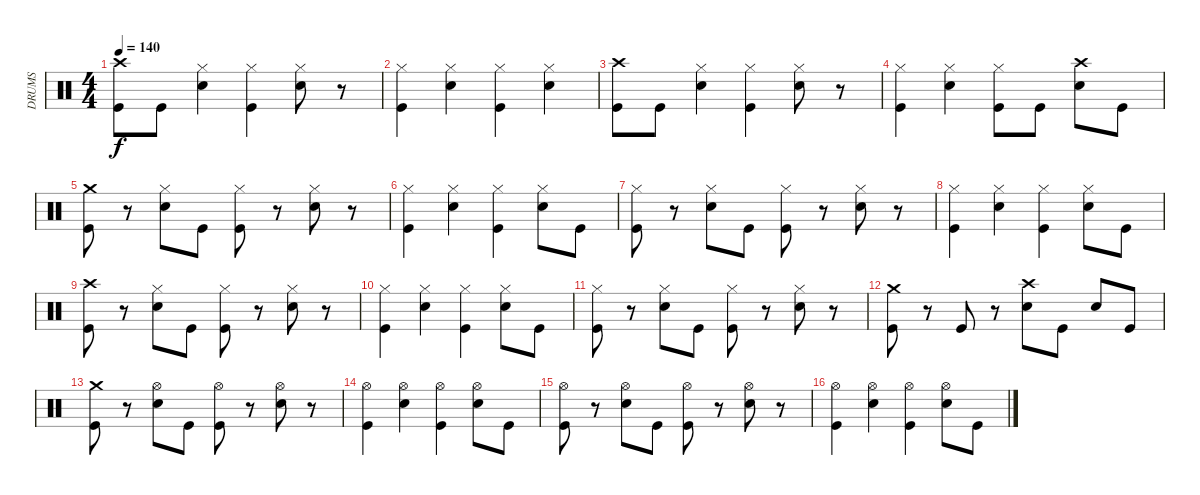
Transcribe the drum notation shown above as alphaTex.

\track ("DRUMS" "DRUMS") {instrument percussion}
\staff {score}
\articulation defaults
\ts (4 4)
\tempo 140
\clef neutral
\ks c
("Crash high (hit)" "Kick (hit)").8{dy f} "Kick (hit)".8 ("Hi-Hat (closed)" "Electric Snare (hit)").4 ("Hi-Hat (closed)" "Kick (hit)").4 ("Hi-Hat (closed)" "Electric Snare (hit)").8 r.8 |
("Hi-Hat (closed)" "Kick (hit)").4 ("Hi-Hat (closed)" "Electric Snare (hit)").4 ("Hi-Hat (closed)" "Kick (hit)").4 ("Hi-Hat (closed)" "Electric Snare (hit)").4 |
("Crash high (hit)" "Kick (hit)").8 "Kick (hit)".8 ("Hi-Hat (closed)" "Electric Snare (hit)").4 ("Hi-Hat (closed)" "Kick (hit)").4 ("Hi-Hat (closed)" "Electric Snare (hit)").8 r.8 |
("Hi-Hat (closed)" "Kick (hit)").4 ("Hi-Hat (closed)" "Electric Snare (hit)").4 ("Hi-Hat (closed)" "Kick (hit)").8 "Kick (hit)".8 ("Crash high (hit)" "Electric Snare (hit)").8 "Kick (hit)".8 |
("Crash medium (hit)" "Kick (hit)").8 r.8 ("Hi-Hat (closed)" "Electric Snare (hit)").8 "Kick (hit)".8 ("Hi-Hat (closed)" "Kick (hit)").8 r.8 ("Hi-Hat (closed)" "Electric Snare (hit)").8 r.8 |
("Hi-Hat (closed)" "Kick (hit)").4 ("Hi-Hat (closed)" "Electric Snare (hit)").4 ("Hi-Hat (closed)" "Kick (hit)").4 ("Hi-Hat (closed)" "Electric Snare (hit)").8 "Kick (hit)".8 |
("Hi-Hat (closed)" "Kick (hit)").8 r.8 ("Hi-Hat (closed)" "Electric Snare (hit)").8 "Kick (hit)".8 ("Hi-Hat (closed)" "Kick (hit)").8 r.8 ("Hi-Hat (closed)" "Electric Snare (hit)").8 r.8 |
("Hi-Hat (closed)" "Kick (hit)").4 ("Hi-Hat (closed)" "Electric Snare (hit)").4 ("Hi-Hat (closed)" "Kick (hit)").4 ("Hi-Hat (closed)" "Electric Snare (hit)").8 "Kick (hit)".8 |
("Crash high (hit)" "Kick (hit)").8 r.8 ("Hi-Hat (closed)" "Electric Snare (hit)").8 "Kick (hit)".8 ("Hi-Hat (closed)" "Kick (hit)").8 r.8 ("Hi-Hat (closed)" "Electric Snare (hit)").8 r.8 |
("Hi-Hat (closed)" "Kick (hit)").4 ("Hi-Hat (closed)" "Electric Snare (hit)").4 ("Hi-Hat (closed)" "Kick (hit)").4 ("Hi-Hat (closed)" "Electric Snare (hit)").8 "Kick (hit)".8 |
("Hi-Hat (closed)" "Kick (hit)").8 r.8 ("Hi-Hat (closed)" "Electric Snare (hit)").8 "Kick (hit)".8 ("Hi-Hat (closed)" "Kick (hit)").8 r.8 ("Hi-Hat (closed)" "Electric Snare (hit)").8 r.8 |
("Crash medium (hit)" "Kick (hit)").8 r.8 "Kick (hit)".8 r.8 ("Crash high (hit)" "Electric Snare (hit)").8 "Kick (hit)".8 "Electric Snare (hit)".8 "Kick (hit)".8 |
("Crash medium (hit)" "Kick (hit)").8 r.8 ("Hi-Hat (open)" "Electric Snare (hit)").8 "Kick (hit)".8 ("Hi-Hat (open)" "Kick (hit)").8 r.8 ("Hi-Hat (open)" "Electric Snare (hit)").8 r.8 |
("Hi-Hat (open)" "Kick (hit)").4 ("Hi-Hat (open)" "Electric Snare (hit)").4 ("Hi-Hat (open)" "Kick (hit)").4 ("Hi-Hat (open)" "Electric Snare (hit)").8 "Kick (hit)".8 |
("Hi-Hat (open)" "Kick (hit)").8 r.8 ("Hi-Hat (open)" "Electric Snare (hit)").8 "Kick (hit)".8 ("Hi-Hat (open)" "Kick (hit)").8 r.8 ("Hi-Hat (open)" "Electric Snare (hit)").8 r.8 |
("Hi-Hat (open)" "Kick (hit)").4 ("Hi-Hat (open)" "Electric Snare (hit)").4 ("Hi-Hat (open)" "Kick (hit)").4 ("Hi-Hat (open)" "Electric Snare (hit)").8 "Kick (hit)".8
